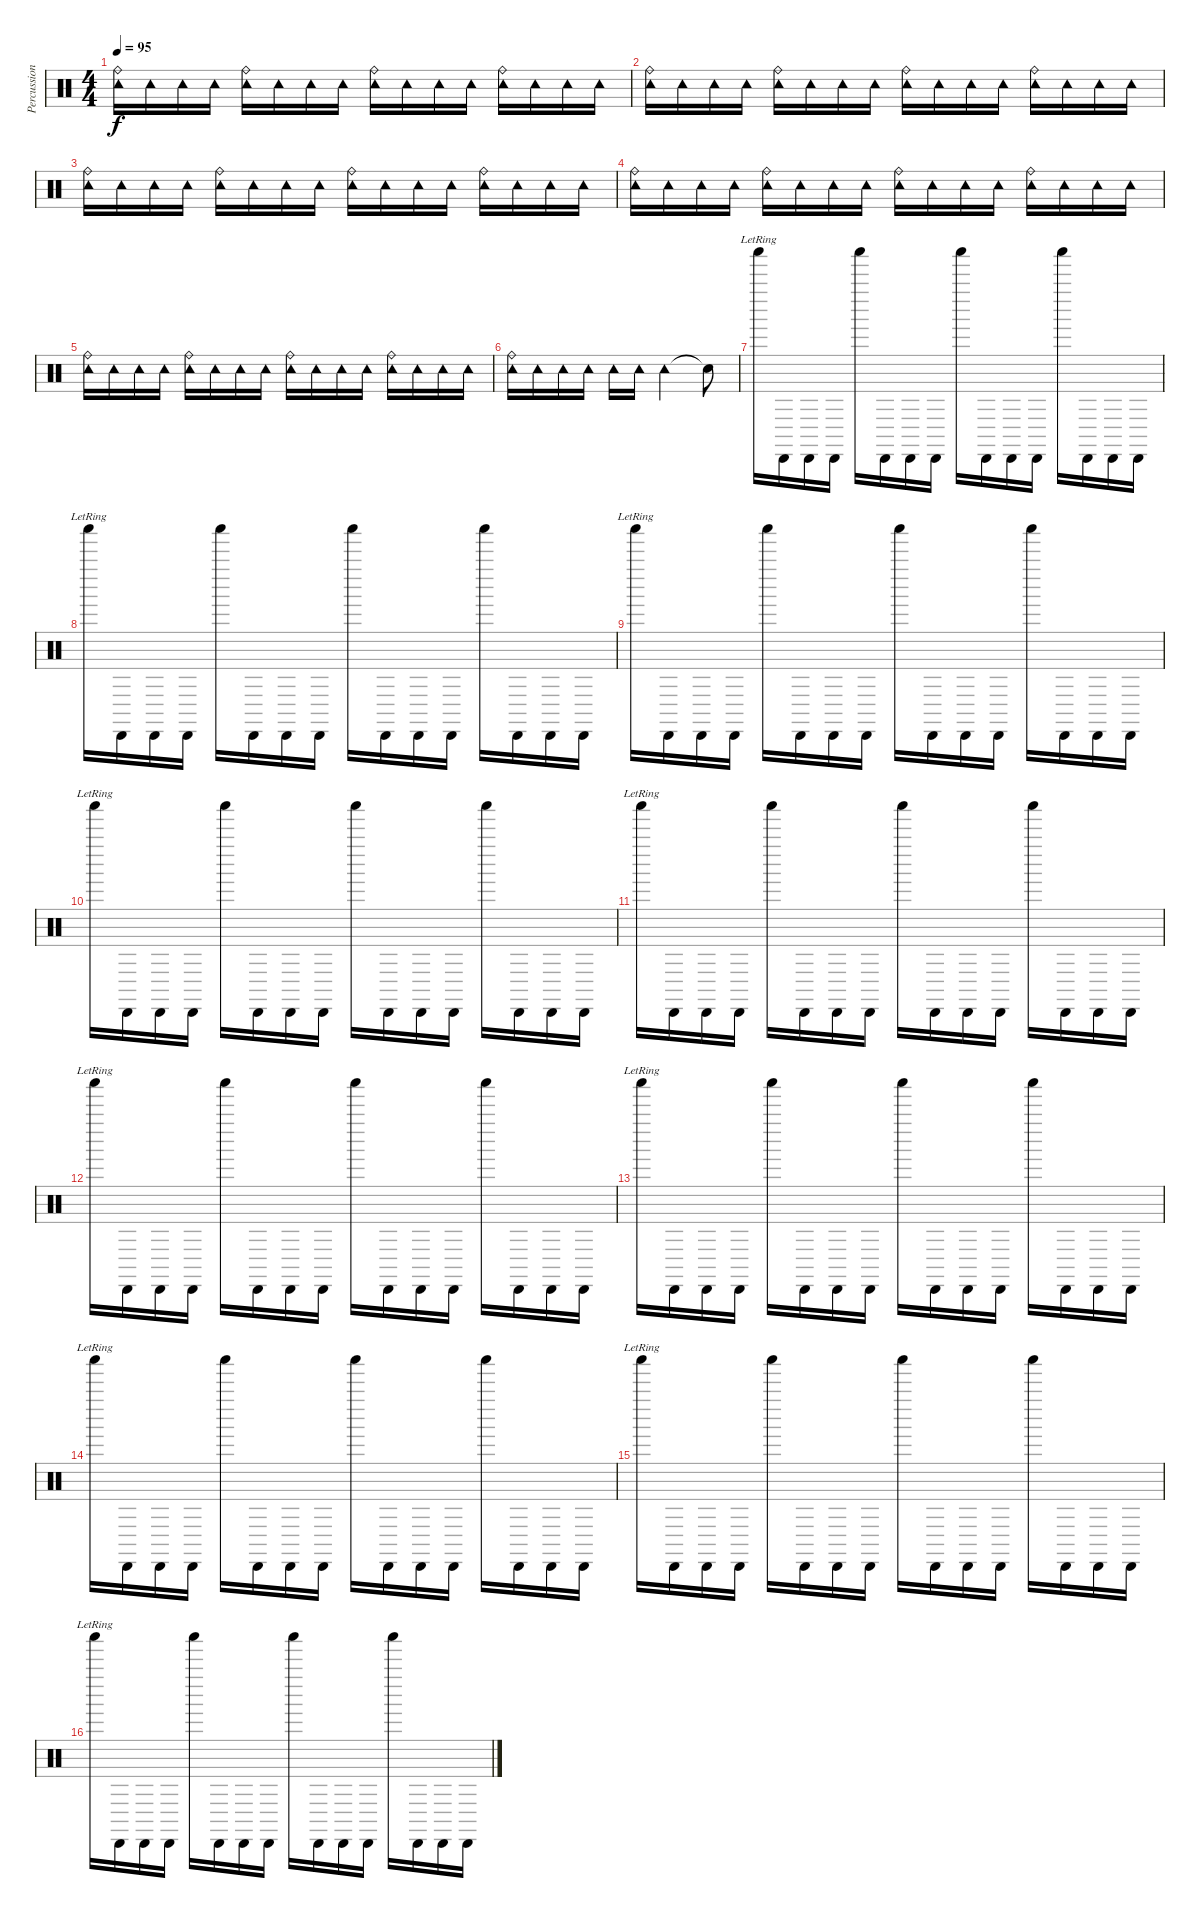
\track ("Percussion (2)" "Percussion") {instrument percussion}
\staff {score}
\articulation defaults
\ts (4 4)
\tempo 95
\clef neutral
\ks c
("Tambourine (hit)" "Ride (bell)").16{dy f} "Tambourine (hit)".16 "Tambourine (hit)".16 "Tambourine (hit)".16 ("Tambourine (hit)" "Ride (bell)").16 "Tambourine (hit)".16 "Tambourine (hit)".16 "Tambourine (hit)".16 ("Tambourine (hit)" "Ride (bell)").16 "Tambourine (hit)".16 "Tambourine (hit)".16 "Tambourine (hit)".16 ("Tambourine (hit)" "Ride (bell)").16 "Tambourine (hit)".16 "Tambourine (hit)".16 "Tambourine (hit)".16 |
("Tambourine (hit)" "Ride (bell)").16 "Tambourine (hit)".16 "Tambourine (hit)".16 "Tambourine (hit)".16 ("Tambourine (hit)" "Ride (bell)").16 "Tambourine (hit)".16 "Tambourine (hit)".16 "Tambourine (hit)".16 ("Tambourine (hit)" "Ride (bell)").16 "Tambourine (hit)".16 "Tambourine (hit)".16 "Tambourine (hit)".16 ("Tambourine (hit)" "Ride (bell)").16 "Tambourine (hit)".16 "Tambourine (hit)".16 "Tambourine (hit)".16 |
("Tambourine (hit)" "Ride (bell)").16 "Tambourine (hit)".16 "Tambourine (hit)".16 "Tambourine (hit)".16 ("Tambourine (hit)" "Ride (bell)").16 "Tambourine (hit)".16 "Tambourine (hit)".16 "Tambourine (hit)".16 ("Tambourine (hit)" "Ride (bell)").16 "Tambourine (hit)".16 "Tambourine (hit)".16 "Tambourine (hit)".16 ("Tambourine (hit)" "Ride (bell)").16 "Tambourine (hit)".16 "Tambourine (hit)".16 "Tambourine (hit)".16 |
("Tambourine (hit)" "Ride (bell)").16 "Tambourine (hit)".16 "Tambourine (hit)".16 "Tambourine (hit)".16 ("Tambourine (hit)" "Ride (bell)").16 "Tambourine (hit)".16 "Tambourine (hit)".16 "Tambourine (hit)".16 ("Tambourine (hit)" "Ride (bell)").16 "Tambourine (hit)".16 "Tambourine (hit)".16 "Tambourine (hit)".16 ("Tambourine (hit)" "Ride (bell)").16 "Tambourine (hit)".16 "Tambourine (hit)".16 "Tambourine (hit)".16 |
("Tambourine (hit)" "Ride (bell)").16 "Tambourine (hit)".16 "Tambourine (hit)".16 "Tambourine (hit)".16 ("Tambourine (hit)" "Ride (bell)").16 "Tambourine (hit)".16 "Tambourine (hit)".16 "Tambourine (hit)".16 ("Tambourine (hit)" "Ride (bell)").16 "Tambourine (hit)".16 "Tambourine (hit)".16 "Tambourine (hit)".16 ("Tambourine (hit)" "Ride (bell)").16 "Tambourine (hit)".16 "Tambourine (hit)".16 "Tambourine (hit)".16 |
("Tambourine (hit)" "Ride (bell)").16 "Tambourine (hit)".16 "Tambourine (hit)".16 "Tambourine (hit)".16 "Tambourine (hit)".16 "Tambourine (hit)".16 "Tambourine (hit)".2 "Snare (hit)"{t}.8 |
"Shaker (hit)"{lr}.16 "Cabasa (hit)".16 "Cabasa (hit)".16 "Cabasa (hit)".16 "Shaker (hit)".16 "Cabasa (hit)".16 "Cabasa (hit)".16 "Cabasa (hit)".16 "Shaker (hit)".16 "Cabasa (hit)".16 "Cabasa (hit)".16 "Cabasa (hit)".16 "Shaker (hit)".16 "Cabasa (hit)".16 "Cabasa (hit)".16 "Cabasa (hit)".16 |
"Shaker (hit)"{lr}.16 "Cabasa (hit)".16 "Cabasa (hit)".16 "Cabasa (hit)".16 "Shaker (hit)".16 "Cabasa (hit)".16 "Cabasa (hit)".16 "Cabasa (hit)".16 "Shaker (hit)".16 "Cabasa (hit)".16 "Cabasa (hit)".16 "Cabasa (hit)".16 "Shaker (hit)".16 "Cabasa (hit)".16 "Cabasa (hit)".16 "Cabasa (hit)".16 |
"Shaker (hit)"{lr}.16 "Cabasa (hit)".16 "Cabasa (hit)".16 "Cabasa (hit)".16 "Shaker (hit)".16 "Cabasa (hit)".16 "Cabasa (hit)".16 "Cabasa (hit)".16 "Shaker (hit)".16 "Cabasa (hit)".16 "Cabasa (hit)".16 "Cabasa (hit)".16 "Shaker (hit)".16 "Cabasa (hit)".16 "Cabasa (hit)".16 "Cabasa (hit)".16 |
"Shaker (hit)"{lr}.16 "Cabasa (hit)".16 "Cabasa (hit)".16 "Cabasa (hit)".16 "Shaker (hit)".16 "Cabasa (hit)".16 "Cabasa (hit)".16 "Cabasa (hit)".16 "Shaker (hit)".16 "Cabasa (hit)".16 "Cabasa (hit)".16 "Cabasa (hit)".16 "Shaker (hit)".16 "Cabasa (hit)".16 "Cabasa (hit)".16 "Cabasa (hit)".16 |
"Shaker (hit)"{lr}.16 "Cabasa (hit)".16 "Cabasa (hit)".16 "Cabasa (hit)".16 "Shaker (hit)".16 "Cabasa (hit)".16 "Cabasa (hit)".16 "Cabasa (hit)".16 "Shaker (hit)".16 "Cabasa (hit)".16 "Cabasa (hit)".16 "Cabasa (hit)".16 "Shaker (hit)".16 "Cabasa (hit)".16 "Cabasa (hit)".16 "Cabasa (hit)".16 |
"Shaker (hit)"{lr}.16 "Cabasa (hit)".16 "Cabasa (hit)".16 "Cabasa (hit)".16 "Shaker (hit)".16 "Cabasa (hit)".16 "Cabasa (hit)".16 "Cabasa (hit)".16 "Shaker (hit)".16 "Cabasa (hit)".16 "Cabasa (hit)".16 "Cabasa (hit)".16 "Shaker (hit)".16 "Cabasa (hit)".16 "Cabasa (hit)".16 "Cabasa (hit)".16 |
"Shaker (hit)"{lr}.16 "Cabasa (hit)".16 "Cabasa (hit)".16 "Cabasa (hit)".16 "Shaker (hit)".16 "Cabasa (hit)".16 "Cabasa (hit)".16 "Cabasa (hit)".16 "Shaker (hit)".16 "Cabasa (hit)".16 "Cabasa (hit)".16 "Cabasa (hit)".16 "Shaker (hit)".16 "Cabasa (hit)".16 "Cabasa (hit)".16 "Cabasa (hit)".16 |
"Shaker (hit)"{lr}.16 "Cabasa (hit)".16 "Cabasa (hit)".16 "Cabasa (hit)".16 "Shaker (hit)".16 "Cabasa (hit)".16 "Cabasa (hit)".16 "Cabasa (hit)".16 "Shaker (hit)".16 "Cabasa (hit)".16 "Cabasa (hit)".16 "Cabasa (hit)".16 "Shaker (hit)".16 "Cabasa (hit)".16 "Cabasa (hit)".16 "Cabasa (hit)".16 |
"Shaker (hit)"{lr}.16 "Cabasa (hit)".16 "Cabasa (hit)".16 "Cabasa (hit)".16 "Shaker (hit)".16 "Cabasa (hit)".16 "Cabasa (hit)".16 "Cabasa (hit)".16 "Shaker (hit)".16 "Cabasa (hit)".16 "Cabasa (hit)".16 "Cabasa (hit)".16 "Shaker (hit)".16 "Cabasa (hit)".16 "Cabasa (hit)".16 "Cabasa (hit)".16 |
"Shaker (hit)"{lr}.16 "Cabasa (hit)".16 "Cabasa (hit)".16 "Cabasa (hit)".16 "Shaker (hit)".16 "Cabasa (hit)".16 "Cabasa (hit)".16 "Cabasa (hit)".16 "Shaker (hit)".16 "Cabasa (hit)".16 "Cabasa (hit)".16 "Cabasa (hit)".16 "Shaker (hit)".16 "Cabasa (hit)".16 "Cabasa (hit)".16 "Cabasa (hit)".16
